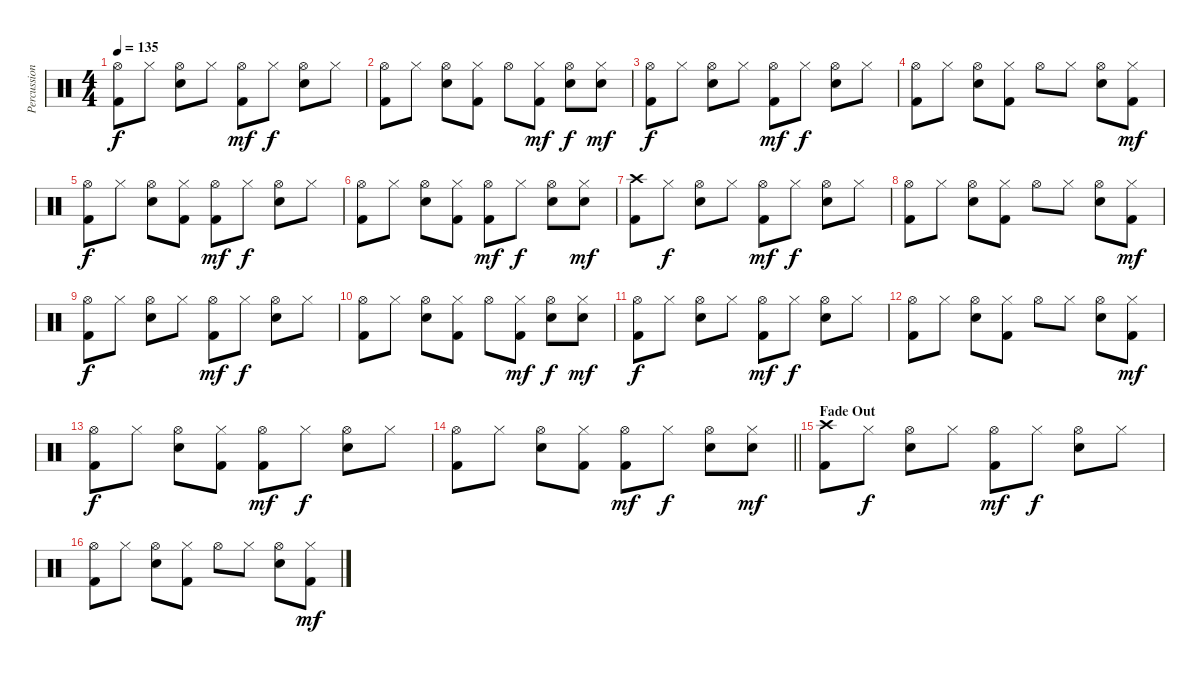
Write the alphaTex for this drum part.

\track ("Percussion" "Percussion") {instrument percussion}
\staff {score}
\articulation defaults
\ts (4 4)
\tempo 135
\clef neutral
\ks c
("Hi-Hat (open)" "Kick (hit) 2").8{dy f} "Hi-Hat (closed)".8 ("Hi-Hat (open)" "Electric Snare (hit)").8 "Hi-Hat (closed)".8 ("Hi-Hat (open)" "Kick (hit) 2").8{dy mf} "Hi-Hat (closed)".8{dy f} ("Hi-Hat (open)" "Electric Snare (hit)").8 "Hi-Hat (closed)".8 |
("Hi-Hat (open)" "Kick (hit) 2").8 "Hi-Hat (closed)".8 ("Hi-Hat (open)" "Electric Snare (hit)").8 ("Hi-Hat (closed)" "Kick (hit) 2").8 "Hi-Hat (open)".8 ("Hi-Hat (closed)" "Kick (hit) 2").8{dy mf} ("Hi-Hat (open)" "Electric Snare (hit)").8{dy f} ("Hi-Hat (closed)" "Electric Snare (hit)").8{dy mf} |
("Hi-Hat (open)" "Kick (hit) 2").8{dy f} "Hi-Hat (closed)".8 ("Hi-Hat (open)" "Electric Snare (hit)").8 "Hi-Hat (closed)".8 ("Hi-Hat (open)" "Kick (hit) 2").8{dy mf} "Hi-Hat (closed)".8{dy f} ("Hi-Hat (open)" "Electric Snare (hit)").8 "Hi-Hat (closed)".8 |
("Hi-Hat (open)" "Kick (hit) 2").8 "Hi-Hat (closed)".8 ("Hi-Hat (open)" "Electric Snare (hit)").8 ("Hi-Hat (closed)" "Kick (hit) 2").8 "Hi-Hat (open)".8 "Hi-Hat (closed)".8 ("Hi-Hat (open)" "Electric Snare (hit)").8 ("Hi-Hat (closed)" "Kick (hit) 2").8{dy mf} |
("Hi-Hat (open)" "Kick (hit) 2").8{dy f} "Hi-Hat (closed)".8 ("Hi-Hat (open)" "Electric Snare (hit)").8 ("Hi-Hat (closed)" "Kick (hit) 2").8 ("Hi-Hat (open)" "Kick (hit) 2").8{dy mf} "Hi-Hat (closed)".8{dy f} ("Hi-Hat (open)" "Electric Snare (hit)").8 "Hi-Hat (closed)".8 |
("Hi-Hat (open)" "Kick (hit) 2").8 "Hi-Hat (closed)".8 ("Hi-Hat (open)" "Electric Snare (hit)").8 ("Hi-Hat (closed)" "Kick (hit) 2").8 ("Hi-Hat (open)" "Kick (hit) 2").8{dy mf} "Hi-Hat (closed)".8{dy f} ("Hi-Hat (open)" "Electric Snare (hit)").8 ("Hi-Hat (closed)" "Electric Snare (hit)").8{dy mf} |
("Crash high (hit)" "Kick (hit) 2").8 "Hi-Hat (closed)".8{dy f} ("Hi-Hat (open)" "Electric Snare (hit)").8 "Hi-Hat (closed)".8 ("Hi-Hat (open)" "Kick (hit) 2").8{dy mf} "Hi-Hat (closed)".8{dy f} ("Hi-Hat (open)" "Electric Snare (hit)").8 "Hi-Hat (closed)".8 |
("Hi-Hat (open)" "Kick (hit) 2").8 "Hi-Hat (closed)".8 ("Hi-Hat (open)" "Electric Snare (hit)").8 ("Hi-Hat (closed)" "Kick (hit) 2").8 "Hi-Hat (open)".8 "Hi-Hat (closed)".8 ("Hi-Hat (open)" "Electric Snare (hit)").8 ("Hi-Hat (closed)" "Kick (hit) 2").8{dy mf} |
("Hi-Hat (open)" "Kick (hit) 2").8{dy f} "Hi-Hat (closed)".8 ("Hi-Hat (open)" "Electric Snare (hit)").8 "Hi-Hat (closed)".8 ("Hi-Hat (open)" "Kick (hit) 2").8{dy mf} "Hi-Hat (closed)".8{dy f} ("Hi-Hat (open)" "Electric Snare (hit)").8 "Hi-Hat (closed)".8 |
("Hi-Hat (open)" "Kick (hit) 2").8 "Hi-Hat (closed)".8 ("Hi-Hat (open)" "Electric Snare (hit)").8 ("Hi-Hat (closed)" "Kick (hit) 2").8 "Hi-Hat (open)".8 ("Hi-Hat (closed)" "Kick (hit) 2").8{dy mf} ("Hi-Hat (open)" "Electric Snare (hit)").8{dy f} ("Hi-Hat (closed)" "Electric Snare (hit)").8{dy mf} |
("Hi-Hat (open)" "Kick (hit) 2").8{dy f} "Hi-Hat (closed)".8 ("Hi-Hat (open)" "Electric Snare (hit)").8 "Hi-Hat (closed)".8 ("Hi-Hat (open)" "Kick (hit) 2").8{dy mf} "Hi-Hat (closed)".8{dy f} ("Hi-Hat (open)" "Electric Snare (hit)").8 "Hi-Hat (closed)".8 |
("Hi-Hat (open)" "Kick (hit) 2").8 "Hi-Hat (closed)".8 ("Hi-Hat (open)" "Electric Snare (hit)").8 ("Hi-Hat (closed)" "Kick (hit) 2").8 "Hi-Hat (open)".8 "Hi-Hat (closed)".8 ("Hi-Hat (open)" "Electric Snare (hit)").8 ("Hi-Hat (closed)" "Kick (hit) 2").8{dy mf} |
("Hi-Hat (open)" "Kick (hit) 2").8{dy f} "Hi-Hat (closed)".8 ("Hi-Hat (open)" "Electric Snare (hit)").8 ("Hi-Hat (closed)" "Kick (hit) 2").8 ("Hi-Hat (open)" "Kick (hit) 2").8{dy mf} "Hi-Hat (closed)".8{dy f} ("Hi-Hat (open)" "Electric Snare (hit)").8 "Hi-Hat (closed)".8 |
\barLineRight lightlight
("Hi-Hat (open)" "Kick (hit) 2").8 "Hi-Hat (closed)".8 ("Hi-Hat (open)" "Electric Snare (hit)").8 ("Hi-Hat (closed)" "Kick (hit) 2").8 ("Hi-Hat (open)" "Kick (hit) 2").8{dy mf} "Hi-Hat (closed)".8{dy f} ("Hi-Hat (open)" "Electric Snare (hit)").8 ("Hi-Hat (closed)" "Electric Snare (hit)").8{dy mf} |
\section ("" "Fade Out")
("Crash high (hit)" "Kick (hit) 2").8 "Hi-Hat (closed)".8{dy f} ("Hi-Hat (open)" "Electric Snare (hit)").8 "Hi-Hat (closed)".8 ("Hi-Hat (open)" "Kick (hit) 2").8{dy mf} "Hi-Hat (closed)".8{dy f} ("Hi-Hat (open)" "Electric Snare (hit)").8 "Hi-Hat (closed)".8 |
("Hi-Hat (open)" "Kick (hit) 2").8 "Hi-Hat (closed)".8 ("Hi-Hat (open)" "Electric Snare (hit)").8 ("Hi-Hat (closed)" "Kick (hit) 2").8 "Hi-Hat (open)".8 "Hi-Hat (closed)".8 ("Hi-Hat (open)" "Electric Snare (hit)").8 ("Hi-Hat (closed)" "Kick (hit) 2").8{dy mf}
